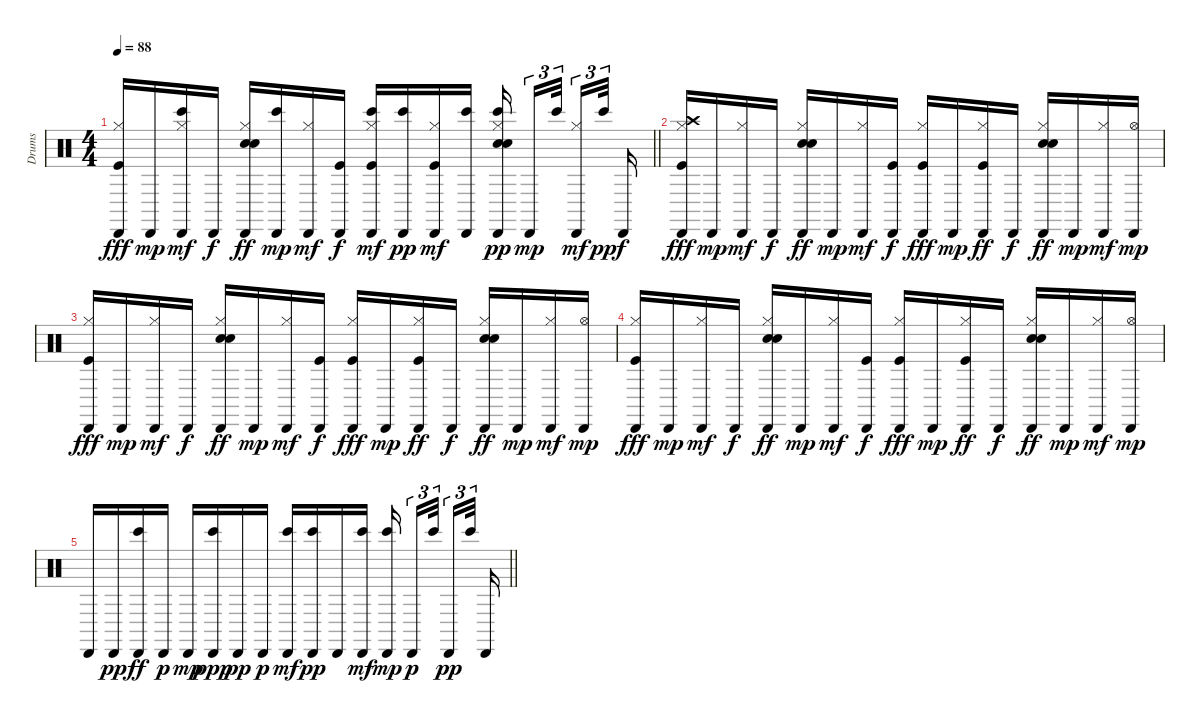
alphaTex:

\track ("Drums" "Drums") {instrument percussion}
\staff {score}
\articulation defaults
\ts (4 4)
\tempo 88
\clef neutral
\barLineRight lightlight
\ks c
("Kick (hit)" "Cabasa (hit)" "Hi-Hat (closed)").16{dy fff} "Cabasa (hit)".16{dy mp} ("Bongo High (hit)" "Cabasa (hit)" "Hi-Hat (closed)").16{dy mf} "Cabasa (hit)".16{dy f} ("Electric Snare (hit)" "Cabasa (hit)" "Snare (hit) 2" "Hi-Hat (closed)").16{dy ff} ("Cabasa (hit)" "Bongo High (hit)").16{dy mp} ("Cabasa (hit)" "Hi-Hat (closed)").16{dy mf} ("Kick (hit)" "Cabasa (hit)").16{dy f} ("Kick (hit)" "Cabasa (hit)" "Hi-Hat (closed)" "Bongo High (hit)").16{dy mf} ("Cabasa (hit)" "Bongo High (hit)").16{dy pp} ("Kick (hit)" "Cabasa (hit)" "Hi-Hat (closed)").16{dy mf} ("Cabasa (hit)" "Bongo High (hit)").16 ("Electric Snare (hit)" "Snare (hit) 2" "Cabasa (hit)" "Hi-Hat (closed)" "Bongo High (hit)").16{dy pp} "Cabasa (hit)".16{tu (3 2) dy mp} "Bongo High (hit)".32{tu (3 2)} ("Hi-Hat (closed)" "Cabasa (hit)").16{tu (3 2) dy mf} "Bongo High (hit)".32{tu (3 2) dy pp} "Cabasa (hit)".16{dy f} |
("Cabasa (hit)" "Crash high (hit)" "Hi-Hat (closed)" "Kick (hit)").16{dy fff} "Cabasa (hit)".16{dy mp} ("Cabasa (hit)" "Hi-Hat (closed)").16{dy mf} "Cabasa (hit)".16{dy f} ("Cabasa (hit)" "Electric Snare (hit)" "Snare (hit) 2" "Hi-Hat (closed)").16{dy ff} "Cabasa (hit)".16{dy mp} ("Cabasa (hit)" "Hi-Hat (closed)").16{dy mf} ("Cabasa (hit)" "Kick (hit)").16{dy f} ("Cabasa (hit)" "Hi-Hat (closed)" "Kick (hit)").16{dy fff} "Cabasa (hit)".16{dy mp} ("Cabasa (hit)" "Hi-Hat (closed)" "Kick (hit)").16{dy ff} "Cabasa (hit)".16{dy f} ("Cabasa (hit)" "Electric Snare (hit)" "Snare (hit) 2" "Hi-Hat (closed)").16{dy ff} "Cabasa (hit)".16{dy mp} ("Cabasa (hit)" "Hi-Hat (closed)").16{dy mf} ("Cabasa (hit)" "Hi-Hat (open)").16{dy mp} |
("Cabasa (hit)" "Hi-Hat (closed)" "Kick (hit)").16{dy fff} "Cabasa (hit)".16{dy mp} ("Cabasa (hit)" "Hi-Hat (closed)").16{dy mf} "Cabasa (hit)".16{dy f} ("Cabasa (hit)" "Electric Snare (hit)" "Snare (hit) 2" "Hi-Hat (closed)").16{dy ff} "Cabasa (hit)".16{dy mp} ("Cabasa (hit)" "Hi-Hat (closed)").16{dy mf} ("Cabasa (hit)" "Kick (hit)").16{dy f} ("Cabasa (hit)" "Hi-Hat (closed)" "Kick (hit)").16{dy fff} "Cabasa (hit)".16{dy mp} ("Cabasa (hit)" "Hi-Hat (closed)" "Kick (hit)").16{dy ff} "Cabasa (hit)".16{dy f} ("Cabasa (hit)" "Electric Snare (hit)" "Snare (hit) 2" "Hi-Hat (closed)").16{dy ff} "Cabasa (hit)".16{dy mp} ("Cabasa (hit)" "Hi-Hat (closed)").16{dy mf} ("Cabasa (hit)" "Hi-Hat (open)").16{dy mp} |
("Cabasa (hit)" "Hi-Hat (closed)" "Kick (hit)").16{dy fff} "Cabasa (hit)".16{dy mp} ("Cabasa (hit)" "Hi-Hat (closed)").16{dy mf} "Cabasa (hit)".16{dy f} ("Cabasa (hit)" "Electric Snare (hit)" "Snare (hit) 2" "Hi-Hat (closed)").16{dy ff} "Cabasa (hit)".16{dy mp} ("Cabasa (hit)" "Hi-Hat (closed)").16{dy mf} ("Cabasa (hit)" "Kick (hit)").16{dy f} ("Cabasa (hit)" "Hi-Hat (closed)" "Kick (hit)").16{dy fff} "Cabasa (hit)".16{dy mp} ("Cabasa (hit)" "Hi-Hat (closed)" "Kick (hit)").16{dy ff} "Cabasa (hit)".16{dy f} ("Cabasa (hit)" "Electric Snare (hit)" "Snare (hit) 2" "Hi-Hat (closed)").16{dy ff} "Cabasa (hit)".16{dy mp} ("Cabasa (hit)" "Hi-Hat (closed)").16{dy mf} ("Cabasa (hit)" "Hi-Hat (open)").16{dy mp} |
\barLineRight lightlight "Cabasa (hit)".16 "Cabasa (hit)".16{dy pp}
("Cabasa (hit)" "Bongo High (hit)").16{dy ff} "Cabasa (hit)".16{dy p} "Cabasa (hit)".16{dy mp} ("Cabasa (hit)" "Bongo High (hit)").16{dy ppp} "Cabasa (hit)".16{dy pp} "Cabasa (hit)".16{dy p} ("Cabasa (hit)" "Bongo High (hit)").16{dy mf} ("Cabasa (hit)" "Bongo High (hit)").16{dy pp} "Cabasa (hit)".16 ("Cabasa (hit)" "Bongo High (hit)").16{dy mf} ("Cabasa (hit)" "Bongo High (hit)").16{dy mp} "Cabasa (hit)".16{tu (3 2) dy p} "Bongo High (hit)".32{tu (3 2)} "Cabasa (hit)".16{tu (3 2) dy pp} "Bongo High (hit)".32{tu (3 2)} "Cabasa (hit)".16
